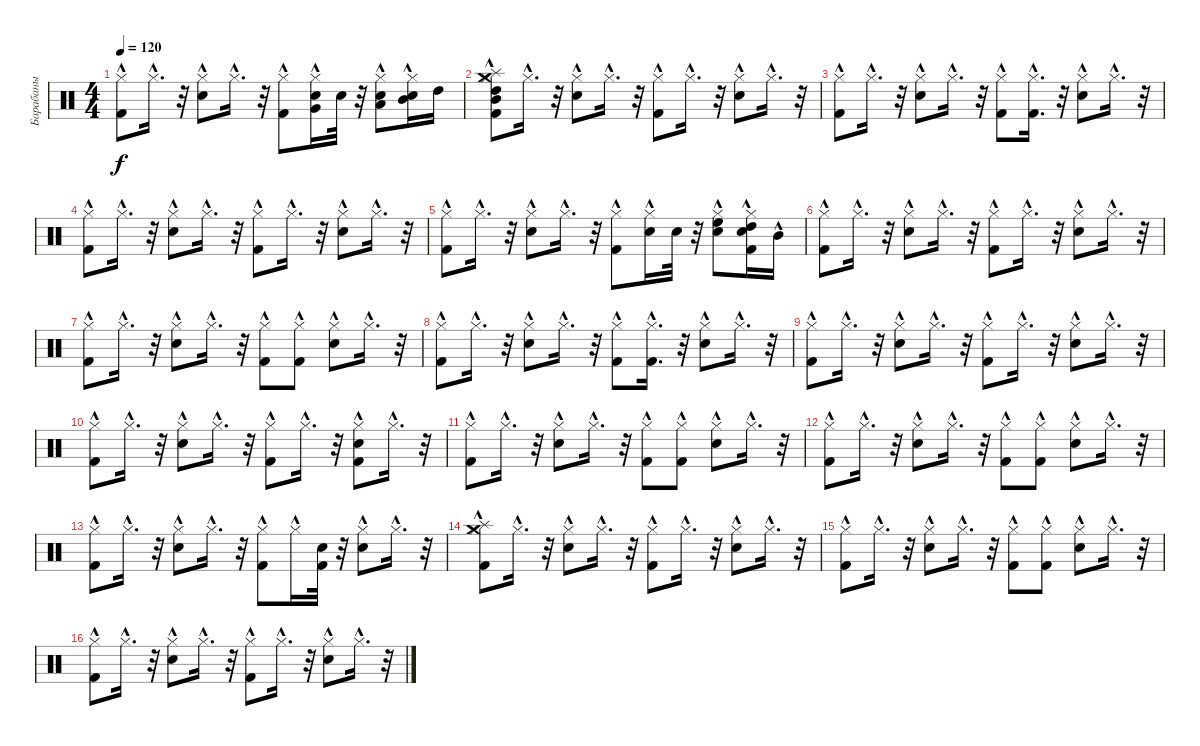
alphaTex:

\track ("Барабаны" "Барабаны") {instrument percussion}
\staff {score}
\articulation defaults
\ts (4 4)
\tempo 120
\clef neutral
\ks c
("Kick (hit) 2" "Hi-Hat (closed)"{hac}).8{dy f} "Hi-Hat (closed)"{hac}.16{d} r.32 ("Electric Snare (hit)" "Hi-Hat (closed)"{hac}).8 "Hi-Hat (closed)"{hac}.16{d} r.32 ("Kick (hit) 2" "Hi-Hat (closed)"{hac}).8 ("Very Low Tom (hit)"{hac} "Electric Snare (hit)" "Hi-Hat (closed)"{hac}).16 "Electric Snare (hit)".32 r.32 ("Low Tom (hit)"{hac} "Electric Snare (hit)" "Hi-Hat (closed)"{hac}).8 ("Mid Tom (hit)"{hac} "Snare (hit) 2" "Hi-Hat (closed)"{hac}).16 "High Tom (hit)".16 |
("Mid Tom (hit)"{hac} "High Tom (hit)"{hac} "Crash medium (hit)" "Splash (hit)" "Kick (hit) 2" "Hi-Hat (closed)"{hac}).8 "Hi-Hat (closed)"{hac}.16{d} r.32 ("Electric Snare (hit)" "Hi-Hat (closed)"{hac}).8 "Hi-Hat (closed)"{hac}.16{d} r.32 ("Kick (hit) 2" "Hi-Hat (closed)"{hac}).8 "Hi-Hat (closed)"{hac}.16{d} r.32 ("Electric Snare (hit)" "Hi-Hat (closed)"{hac}).8 "Hi-Hat (closed)"{hac}.16{d} r.32 |
("Kick (hit) 2" "Hi-Hat (closed)"{hac}).8 "Hi-Hat (closed)"{hac}.16{d} r.32 ("Electric Snare (hit)" "Hi-Hat (closed)"{hac}).8 "Hi-Hat (closed)"{hac}.16{d} r.32 ("Kick (hit) 2" "Hi-Hat (closed)"{hac}).8 ("Kick (hit) 2"{hac} "Hi-Hat (closed)"{hac}).16{d} r.32 ("Electric Snare (hit)" "Hi-Hat (closed)"{hac}).8 "Hi-Hat (closed)"{hac}.16{d} r.32 |
("Kick (hit) 2" "Hi-Hat (closed)"{hac}).8 "Hi-Hat (closed)"{hac}.16{d} r.32 ("Electric Snare (hit)" "Hi-Hat (closed)"{hac}).8 "Hi-Hat (closed)"{hac}.16{d} r.32 ("Kick (hit) 2" "Hi-Hat (closed)"{hac}).8 "Hi-Hat (closed)"{hac}.16{d} r.32 ("Electric Snare (hit)" "Hi-Hat (closed)"{hac}).8 "Hi-Hat (closed)"{hac}.16{d} r.32 |
("Kick (hit) 2" "Hi-Hat (closed)"{hac}).8 "Hi-Hat (closed)"{hac}.16{d} r.32 ("Electric Snare (hit)" "Hi-Hat (closed)"{hac}).8 "Hi-Hat (closed)"{hac}.16{d} r.32 ("Kick (hit) 2" "Hi-Hat (closed)"{hac}).8 ("Electric Snare (hit)" "Hi-Hat (closed)"{hac}).16 "Snare (hit) 2".32 r.32 ("High Floor Tom (hit)"{hac} "Electric Snare (hit)" "Hi-Hat (closed)"{hac}).8 ("High Tom (hit)"{hac} "Electric Snare (hit)" "Kick (hit) 2" "Hi-Hat (closed)"{hac}).16 "Mid Tom (hit)"{hac}.16 |
("Kick (hit) 2" "Hi-Hat (closed)"{hac}).8 "Hi-Hat (closed)"{hac}.16{d} r.32 ("Electric Snare (hit)" "Hi-Hat (closed)"{hac}).8 "Hi-Hat (closed)"{hac}.16{d} r.32 ("Kick (hit) 2" "Hi-Hat (closed)"{hac}).8 "Hi-Hat (closed)"{hac}.16{d} r.32 ("Electric Snare (hit)" "Hi-Hat (closed)"{hac}).8 "Hi-Hat (closed)"{hac}.16{d} r.32 |
("Kick (hit) 2" "Hi-Hat (closed)"{hac}).8 "Hi-Hat (closed)"{hac}.16{d} r.32 ("Electric Snare (hit)" "Hi-Hat (closed)"{hac}).8 "Hi-Hat (closed)"{hac}.16{d} r.32 ("Kick (hit) 2" "Hi-Hat (closed)"{hac}).8 ("Kick (hit) 2" "Hi-Hat (closed)"{hac}).8 ("Electric Snare (hit)" "Hi-Hat (closed)"{hac}).8 "Hi-Hat (closed)"{hac}.16{d} r.32 |
("Kick (hit) 2" "Hi-Hat (closed)"{hac}).8 "Hi-Hat (closed)"{hac}.16{d} r.32 ("Electric Snare (hit)" "Hi-Hat (closed)"{hac}).8 "Hi-Hat (closed)"{hac}.16{d} r.32 ("Kick (hit) 2" "Hi-Hat (closed)"{hac}).8 ("Kick (hit) 2"{hac} "Hi-Hat (closed)"{hac}).16{d} r.32 ("Electric Snare (hit)" "Hi-Hat (closed)"{hac}).8 "Hi-Hat (closed)"{hac}.16{d} r.32 |
("Kick (hit) 2" "Hi-Hat (closed)"{hac}).8 "Hi-Hat (closed)"{hac}.16{d} r.32 ("Electric Snare (hit)" "Hi-Hat (closed)"{hac}).8 "Hi-Hat (closed)"{hac}.16{d} r.32 ("Kick (hit) 2" "Hi-Hat (closed)"{hac}).8 "Hi-Hat (closed)"{hac}.16{d} r.32 ("Electric Snare (hit)" "Hi-Hat (closed)"{hac}).8 "Hi-Hat (closed)"{hac}.16{d} r.32 |
("Kick (hit) 2" "Hi-Hat (closed)"{hac}).8 "Hi-Hat (closed)"{hac}.16{d} r.32 ("Electric Snare (hit)" "Hi-Hat (closed)"{hac}).8 "Hi-Hat (closed)"{hac}.16{d} r.32 ("Kick (hit) 2" "Hi-Hat (closed)"{hac}).8 "Hi-Hat (closed)"{hac}.16{d} r.32 ("Kick (hit) 2"{hac} "Electric Snare (hit)" "Hi-Hat (closed)"{hac}).8 "Hi-Hat (closed)"{hac}.16{d} r.32 |
("Kick (hit) 2" "Hi-Hat (closed)"{hac}).8 "Hi-Hat (closed)"{hac}.16{d} r.32 ("Electric Snare (hit)" "Hi-Hat (closed)"{hac}).8 "Hi-Hat (closed)"{hac}.16{d} r.32 ("Kick (hit) 2" "Hi-Hat (closed)"{hac}).8 ("Kick (hit) 2" "Hi-Hat (closed)"{hac}).8 ("Electric Snare (hit)" "Hi-Hat (closed)"{hac}).8 "Hi-Hat (closed)"{hac}.16{d} r.32 |
("Kick (hit) 2" "Hi-Hat (closed)"{hac}).8 "Hi-Hat (closed)"{hac}.16{d} r.32 ("Electric Snare (hit)" "Hi-Hat (closed)"{hac}).8 "Hi-Hat (closed)"{hac}.16{d} r.32 ("Kick (hit) 2" "Hi-Hat (closed)"{hac}).8 ("Kick (hit) 2" "Hi-Hat (closed)"{hac}).8 ("Electric Snare (hit)" "Hi-Hat (closed)"{hac}).8 "Hi-Hat (closed)"{hac}.16{d} r.32 |
("Kick (hit) 2" "Hi-Hat (closed)"{hac}).8 "Hi-Hat (closed)"{hac}.16{d} r.32 ("Electric Snare (hit)" "Hi-Hat (closed)"{hac}).8 "Hi-Hat (closed)"{hac}.16{d} r.32 ("Kick (hit) 2" "Hi-Hat (closed)"{hac}).8 "Hi-Hat (closed)"{hac}.16 ("Electric Snare (hit)" "Kick (hit) 2").32 r.32 ("Electric Snare (hit)" "Hi-Hat (closed)"{hac}).8 "Hi-Hat (closed)"{hac}.16{d} r.32 |
("Crash medium (hit)" "Splash (hit)" "Kick (hit) 2" "Hi-Hat (closed)"{hac}).8 "Hi-Hat (closed)"{hac}.16{d} r.32 ("Electric Snare (hit)" "Hi-Hat (closed)"{hac}).8 "Hi-Hat (closed)"{hac}.16{d} r.32 ("Kick (hit) 2" "Hi-Hat (closed)"{hac}).8 "Hi-Hat (closed)"{hac}.16{d} r.32 ("Electric Snare (hit)" "Hi-Hat (closed)"{hac}).8 "Hi-Hat (closed)"{hac}.16{d} r.32 |
("Kick (hit) 2" "Hi-Hat (closed)"{hac}).8 "Hi-Hat (closed)"{hac}.16{d} r.32 ("Electric Snare (hit)" "Hi-Hat (closed)"{hac}).8 "Hi-Hat (closed)"{hac}.16{d} r.32 ("Kick (hit) 2" "Hi-Hat (closed)"{hac}).8 ("Kick (hit) 2" "Hi-Hat (closed)"{hac}).8 ("Electric Snare (hit)" "Hi-Hat (closed)"{hac}).8 "Hi-Hat (closed)"{hac}.16{d} r.32 |
("Kick (hit) 2" "Hi-Hat (closed)"{hac}).8 "Hi-Hat (closed)"{hac}.16{d} r.32 ("Electric Snare (hit)" "Hi-Hat (closed)"{hac}).8 "Hi-Hat (closed)"{hac}.16{d} r.32 ("Kick (hit) 2" "Hi-Hat (closed)"{hac}).8 "Hi-Hat (closed)"{hac}.16{d} r.32 ("Electric Snare (hit)" "Hi-Hat (closed)"{hac}).8 "Hi-Hat (closed)"{hac}.16{d} r.32
